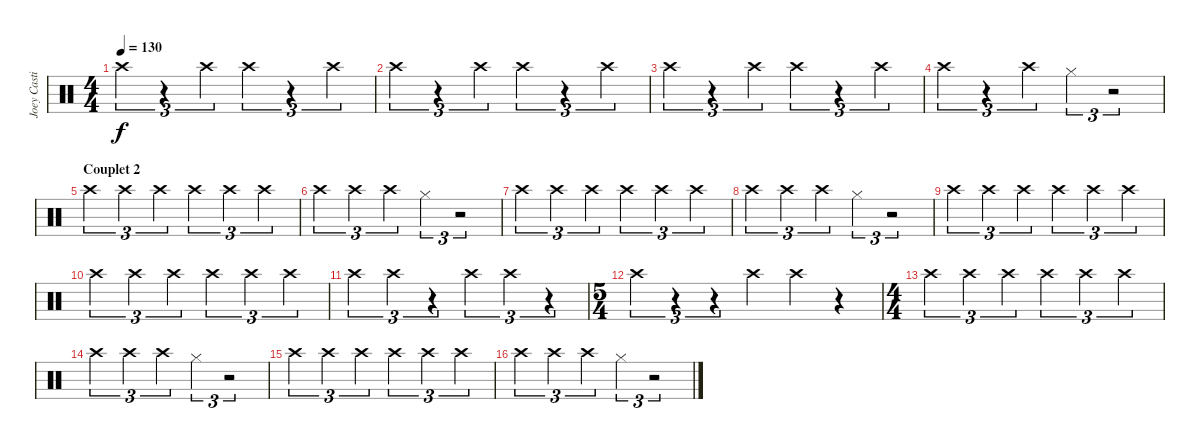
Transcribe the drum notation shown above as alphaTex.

\track ("Joey Castillo" "Joey Casti") {instrument percussion}
\staff {score}
\articulation defaults
\ts (4 4)
\tempo 130
\clef neutral
\ks c "Crash high (hit)".4{tu (3 2) dy f}
r.4{tu (3 2)} "Crash high (hit)".4{tu (3 2)} "Crash high (hit)".4{tu (3 2)} r.4{tu (3 2)} "Crash high (hit)".4{tu (3 2)} |
"Crash high (hit)".4{tu (3 2)} r.4{tu (3 2)} "Crash high (hit)".4{tu (3 2)} "Crash high (hit)".4{tu (3 2)} r.4{tu (3 2)} "Crash high (hit)".4{tu (3 2)} |
"Crash high (hit)".4{tu (3 2)} r.4{tu (3 2)} "Crash high (hit)".4{tu (3 2)} "Crash high (hit)".4{tu (3 2)} r.4{tu (3 2)} "Crash high (hit)".4{tu (3 2)} |
"Crash high (hit)".4{tu (3 2)} r.4{tu (3 2)} "Crash high (hit)".4{tu (3 2)} "Hi-Hat (closed)".4{tu (3 2)} r.2{tu (3 2)} |
\section ("" "Couplet 2")
"Crash high (hit)".4{tu (3 2)} "Crash high (hit)".4{tu (3 2)} "Crash high (hit)".4{tu (3 2)} "Crash high (hit)".4{tu (3 2)} "Crash high (hit)".4{tu (3 2)} "Crash high (hit)".4{tu (3 2)} |
"Crash high (hit)".4{tu (3 2)} "Crash high (hit)".4{tu (3 2)} "Crash high (hit)".4{tu (3 2)} "Hi-Hat (closed)".4{tu (3 2)} r.2{tu (3 2)} |
"Crash high (hit)".4{tu (3 2)} "Crash high (hit)".4{tu (3 2)} "Crash high (hit)".4{tu (3 2)} "Crash high (hit)".4{tu (3 2)} "Crash high (hit)".4{tu (3 2)} "Crash high (hit)".4{tu (3 2)} |
"Crash high (hit)".4{tu (3 2)} "Crash high (hit)".4{tu (3 2)} "Crash high (hit)".4{tu (3 2)} "Hi-Hat (closed)".4{tu (3 2)} r.2{tu (3 2)} |
"Crash high (hit)".4{tu (3 2)} "Crash high (hit)".4{tu (3 2)} "Crash high (hit)".4{tu (3 2)} "Crash high (hit)".4{tu (3 2)} "Crash high (hit)".4{tu (3 2)} "Crash high (hit)".4{tu (3 2)} |
"Crash high (hit)".4{tu (3 2)} "Crash high (hit)".4{tu (3 2)} "Crash high (hit)".4{tu (3 2)} "Crash high (hit)".4{tu (3 2)} "Crash high (hit)".4{tu (3 2)} "Crash high (hit)".4{tu (3 2)} |
"Crash high (hit)".4{tu (3 2)} "Crash high (hit)".4{tu (3 2)} r.4{tu (3 2)} "Crash high (hit)".4{tu (3 2)} "Crash high (hit)".4{tu (3 2)} r.4{tu (3 2)} |
\ts (5 4)
"Crash high (hit)".4{tu (3 2)} r.4{tu (3 2)} r.4{tu (3 2)} "Crash high (hit)".4 "Crash high (hit)".4 r.4 |
\ts (4 4)
"Crash high (hit)".4{tu (3 2)} "Crash high (hit)".4{tu (3 2)} "Crash high (hit)".4{tu (3 2)} "Crash high (hit)".4{tu (3 2)} "Crash high (hit)".4{tu (3 2)} "Crash high (hit)".4{tu (3 2)} |
"Crash high (hit)".4{tu (3 2)} "Crash high (hit)".4{tu (3 2)} "Crash high (hit)".4{tu (3 2)} "Hi-Hat (closed)".4{tu (3 2)} r.2{tu (3 2)} |
"Crash high (hit)".4{tu (3 2)} "Crash high (hit)".4{tu (3 2)} "Crash high (hit)".4{tu (3 2)} "Crash high (hit)".4{tu (3 2)} "Crash high (hit)".4{tu (3 2)} "Crash high (hit)".4{tu (3 2)} |
"Crash high (hit)".4{tu (3 2)} "Crash high (hit)".4{tu (3 2)} "Crash high (hit)".4{tu (3 2)} "Hi-Hat (closed)".4{tu (3 2)} r.2{tu (3 2)}
